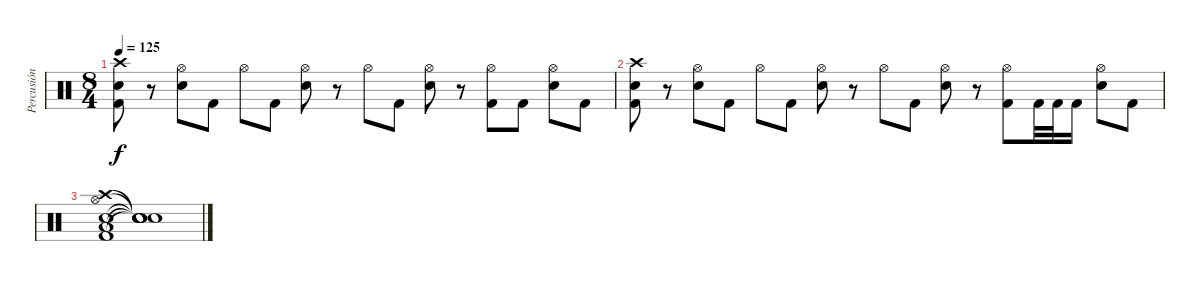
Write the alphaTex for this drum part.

\track ("Percusión" "Percusión") {instrument percussion}
\staff {score}
\articulation defaults
\ts (8 4)
\tempo 125
\clef neutral
\ks c
("Crash high (hit)" "Electric Snare (hit)" "Kick (hit) 2").8{dy f} r.8 ("Hi-Hat (open)" "Electric Snare (hit)").8 "Kick (hit) 2".8 "Hi-Hat (open)".8 "Kick (hit) 2".8 ("Hi-Hat (open)" "Electric Snare (hit)").8 r.8 "Hi-Hat (open)".8 "Kick (hit) 2".8 ("Hi-Hat (open)" "Electric Snare (hit)").8 r.8 ("Hi-Hat (open)" "Kick (hit) 2").8 "Kick (hit) 2".8 ("Hi-Hat (open)" "Electric Snare (hit)").8 "Kick (hit) 2".8 |
("Crash high (hit)" "Electric Snare (hit)" "Kick (hit) 2").8 r.8 ("Hi-Hat (open)" "Electric Snare (hit)").8 "Kick (hit) 2".8 "Hi-Hat (open)".8 "Kick (hit) 2".8 ("Hi-Hat (open)" "Electric Snare (hit)").8 r.8 "Hi-Hat (open)".8 "Kick (hit) 2".8 ("Hi-Hat (open)" "Electric Snare (hit)").8 r.8 ("Hi-Hat (open)" "Kick (hit) 2").8 "Kick (hit) 2".32 "Kick (hit) 2".32 "Kick (hit) 2".16 ("Hi-Hat (open)" "Electric Snare (hit)").8 "Kick (hit) 2".8 |
("Crash high (hit)" "Hi-Hat (open)" "Electric Snare (hit)" "Low Floor Tom (hit)" "Kick (hit) 2").1{volume 2} ("Snare (hit)"{t} "Snare (hit)"{t} "Snare (hit)"{t} "Snare (hit)"{t} "Snare (hit)"{t}).1
